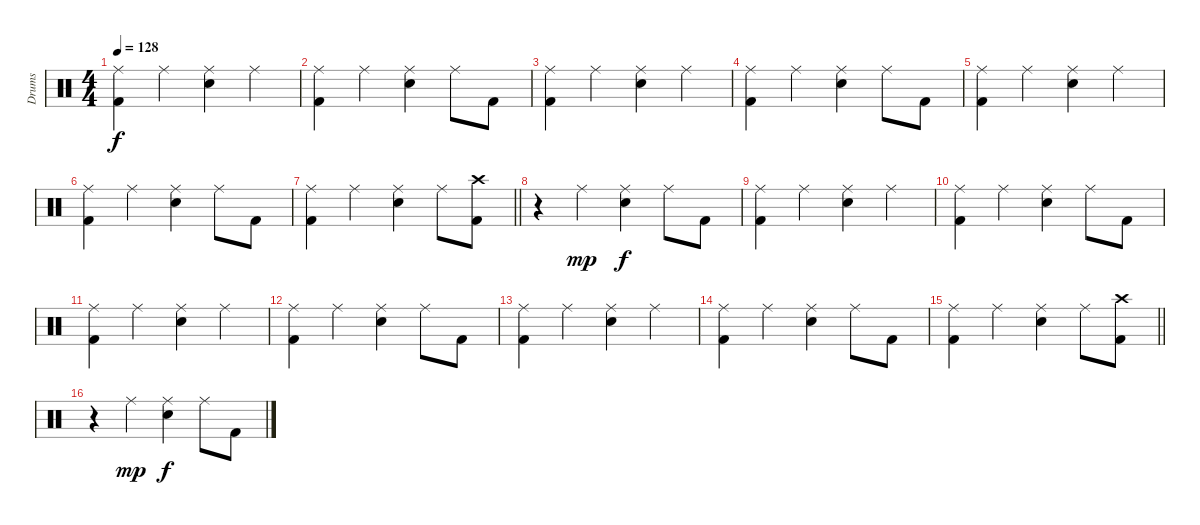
\track ("Drums" "Drums") {instrument percussion}
\staff {score}
\articulation defaults
\ts (4 4)
\tempo 128
\clef neutral
\ks c
("Ride (middle)" "Kick (hit) 2").4{dy f} "Ride (middle)".4 ("Ride (middle)" "Snare (hit) 2").4 "Ride (middle)".4 |
("Ride (middle)" "Kick (hit) 2").4 "Ride (middle)".4 ("Ride (middle)" "Snare (hit) 2").4 "Ride (middle)".8 "Kick (hit) 2".8 |
("Ride (middle)" "Kick (hit) 2").4 "Ride (middle)".4 ("Ride (middle)" "Snare (hit) 2").4 "Ride (middle)".4 |
("Ride (middle)" "Kick (hit) 2").4 "Ride (middle)".4 ("Ride (middle)" "Snare (hit) 2").4 "Ride (middle)".8 "Kick (hit) 2".8 |
("Ride (middle)" "Kick (hit) 2").4 "Ride (middle)".4 ("Ride (middle)" "Snare (hit) 2").4 "Ride (middle)".4 |
("Ride (middle)" "Kick (hit) 2").4 "Ride (middle)".4 ("Ride (middle)" "Snare (hit) 2").4 "Ride (middle)".8 "Kick (hit) 2".8 |
\barLineRight lightlight
("Ride (middle)" "Kick (hit) 2").4 "Ride (middle)".4 ("Ride (middle)" "Snare (hit) 2").4 "Ride (middle)".8 ("Crash high (hit)" "Kick (hit) 2").8 |
r.4 "Ride (middle)".4{dy mp} ("Ride (middle)" "Snare (hit) 2").4{dy f} "Ride (middle)".8 "Kick (hit) 2".8 |
("Ride (middle)" "Kick (hit) 2").4 "Ride (middle)".4 ("Ride (middle)" "Snare (hit) 2").4 "Ride (middle)".4 |
("Ride (middle)" "Kick (hit) 2").4 "Ride (middle)".4 ("Ride (middle)" "Snare (hit) 2").4 "Ride (middle)".8 "Kick (hit) 2".8 |
("Ride (middle)" "Kick (hit) 2").4 "Ride (middle)".4 ("Ride (middle)" "Snare (hit) 2").4 "Ride (middle)".4 |
("Ride (middle)" "Kick (hit) 2").4 "Ride (middle)".4 ("Ride (middle)" "Snare (hit) 2").4 "Ride (middle)".8 "Kick (hit) 2".8 |
("Ride (middle)" "Kick (hit) 2").4 "Ride (middle)".4 ("Ride (middle)" "Snare (hit) 2").4 "Ride (middle)".4 |
("Ride (middle)" "Kick (hit) 2").4 "Ride (middle)".4 ("Ride (middle)" "Snare (hit) 2").4 "Ride (middle)".8 "Kick (hit) 2".8 |
\barLineRight lightlight
("Ride (middle)" "Kick (hit) 2").4 "Ride (middle)".4 ("Ride (middle)" "Snare (hit) 2").4 "Ride (middle)".8 ("Crash high (hit)" "Kick (hit) 2").8 |
r.4 "Ride (middle)".4{dy mp} ("Ride (middle)" "Snare (hit) 2").4{dy f} "Ride (middle)".8 "Kick (hit) 2".8
